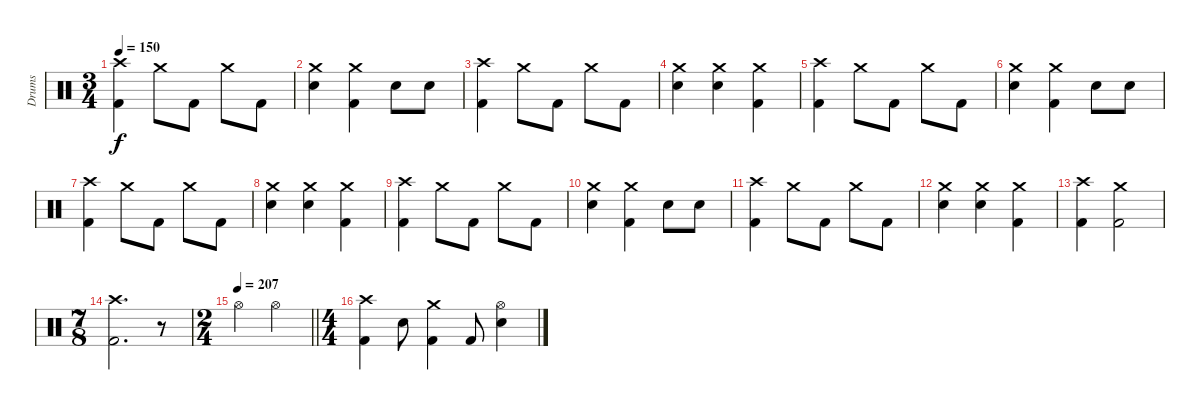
\track ("Drums" "Drums") {instrument percussion}
\staff {score}
\articulation defaults
\ts (3 4)
\tempo 150
\clef neutral
\ks c
("Crash high (hit)" "Kick (hit) 2").4{dy f} "Crash medium (hit)".8 "Kick (hit) 2".8 "Crash medium (hit)".8 "Kick (hit) 2".8 |
("Crash medium (hit)" "Snare (hit) 2").4 ("Crash medium (hit)" "Kick (hit) 2").4 "Snare (hit) 2".8 "Snare (hit) 2".8 |
("Crash high (hit)" "Kick (hit) 2").4 "Crash medium (hit)".8 "Kick (hit) 2".8 "Crash medium (hit)".8 "Kick (hit) 2".8 |
("Crash medium (hit)" "Snare (hit) 2").4 ("Crash medium (hit)" "Snare (hit) 2").4 ("Crash medium (hit)" "Kick (hit) 2").4 |
("Crash high (hit)" "Kick (hit) 2").4 "Crash medium (hit)".8 "Kick (hit) 2".8 "Crash medium (hit)".8 "Kick (hit) 2".8 |
("Crash medium (hit)" "Snare (hit) 2").4 ("Crash medium (hit)" "Kick (hit) 2").4 "Snare (hit) 2".8 "Snare (hit) 2".8 |
("Crash high (hit)" "Kick (hit) 2").4 "Crash medium (hit)".8 "Kick (hit) 2".8 "Crash medium (hit)".8 "Kick (hit) 2".8 |
("Crash medium (hit)" "Snare (hit) 2").4 ("Crash medium (hit)" "Snare (hit) 2").4 ("Crash medium (hit)" "Kick (hit) 2").4 |
("Crash high (hit)" "Kick (hit) 2").4 "Crash medium (hit)".8 "Kick (hit) 2".8 "Crash medium (hit)".8 "Kick (hit) 2".8 |
("Crash medium (hit)" "Snare (hit) 2").4 ("Crash medium (hit)" "Kick (hit) 2").4 "Snare (hit) 2".8 "Snare (hit) 2".8 |
("Crash high (hit)" "Kick (hit) 2").4 "Crash medium (hit)".8 "Kick (hit) 2".8 "Crash medium (hit)".8 "Kick (hit) 2".8 |
("Crash medium (hit)" "Snare (hit) 2").4 ("Crash medium (hit)" "Snare (hit) 2").4 ("Crash medium (hit)" "Kick (hit) 2").4 |
("Crash high (hit)" "Kick (hit) 2").4 ("Crash medium (hit)" "Kick (hit) 2").2 |
\ts (7 8)
("Crash high (hit)" "Kick (hit) 2").2{d} r.8 |
\ts (2 4)
\tempo 207
\barLineRight lightlight "Hi-Hat (open)".4 "Hi-Hat (open)".4
|
\ts (4 4)
("Crash high (hit)" "Kick (hit) 2").4 "Snare (hit) 2".8 ("Crash medium (hit)" "Kick (hit) 2").4 "Kick (hit) 2".8 ("Hi-Hat (open)" "Snare (hit) 2").4
